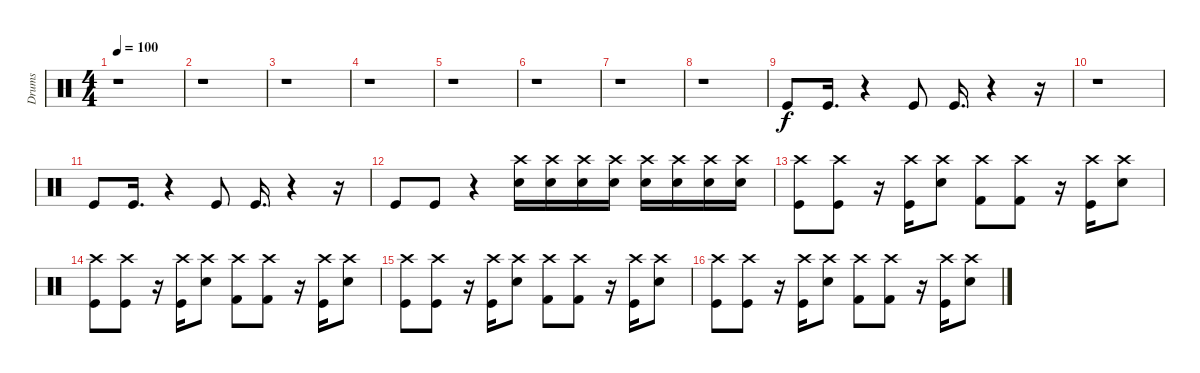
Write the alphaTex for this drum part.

\track ("Drums" "Drums") {instrument percussion}
\staff {score}
\articulation defaults
\ts (4 4)
\tempo 100
\clef neutral
\ks c
r.1{dy f} |
r.1 |
r.1 |
r.1 |
r.1 |
r.1 |
r.1 |
r.1 |
"Kick (hit)".8 "Kick (hit)".16{d} r.4 "Kick (hit)".8 "Kick (hit)".16{d} r.4 r.16 |
r.1 |
"Kick (hit)".8 "Kick (hit)".16{d} r.4 "Kick (hit)".8 "Kick (hit)".16{d} r.4 r.16 |
"Kick (hit)".8 "Kick (hit)".8 r.4 ("Crash high (hit)" "Snare (hit) 2").16 ("Crash high (hit)" "Snare (hit) 2").16 ("Crash high (hit)" "Snare (hit) 2").16 ("Crash high (hit)" "Snare (hit) 2").16 ("Crash high (hit)" "Snare (hit) 2").16 ("Crash high (hit)" "Snare (hit) 2").16 ("Crash high (hit)" "Snare (hit) 2").16 ("Crash high (hit)" "Snare (hit) 2").16 |
("Crash high (hit)" "Kick (hit)").8 ("Crash high (hit)" "Kick (hit)").8 r.16 ("Crash high (hit)" "Kick (hit)").16 ("Crash high (hit)" "Snare (hit) 2").8 ("Crash high (hit)" "Kick (hit) 2").8 ("Crash high (hit)" "Kick (hit) 2").8 r.16 ("Crash high (hit)" "Kick (hit)").16 ("Crash high (hit)" "Snare (hit) 2").8 |
("Crash high (hit)" "Kick (hit)").8 ("Crash high (hit)" "Kick (hit)").8 r.16 ("Crash high (hit)" "Kick (hit)").16 ("Crash high (hit)" "Snare (hit) 2").8 ("Crash high (hit)" "Kick (hit) 2").8 ("Crash high (hit)" "Kick (hit) 2").8 r.16 ("Crash high (hit)" "Kick (hit)").16 ("Crash high (hit)" "Snare (hit) 2").8 |
("Crash high (hit)" "Kick (hit)").8 ("Crash high (hit)" "Kick (hit)").8 r.16 ("Crash high (hit)" "Kick (hit)").16 ("Crash high (hit)" "Snare (hit) 2").8 ("Crash high (hit)" "Kick (hit) 2").8 ("Crash high (hit)" "Kick (hit) 2").8 r.16 ("Crash high (hit)" "Kick (hit)").16 ("Crash high (hit)" "Snare (hit) 2").8 |
("Crash high (hit)" "Kick (hit)").8 ("Crash high (hit)" "Kick (hit)").8 r.16 ("Crash high (hit)" "Kick (hit)").16 ("Crash high (hit)" "Snare (hit) 2").8 ("Crash high (hit)" "Kick (hit) 2").8 ("Crash high (hit)" "Kick (hit) 2").8 r.16 ("Crash high (hit)" "Kick (hit)").16 ("Crash high (hit)" "Snare (hit) 2").8
